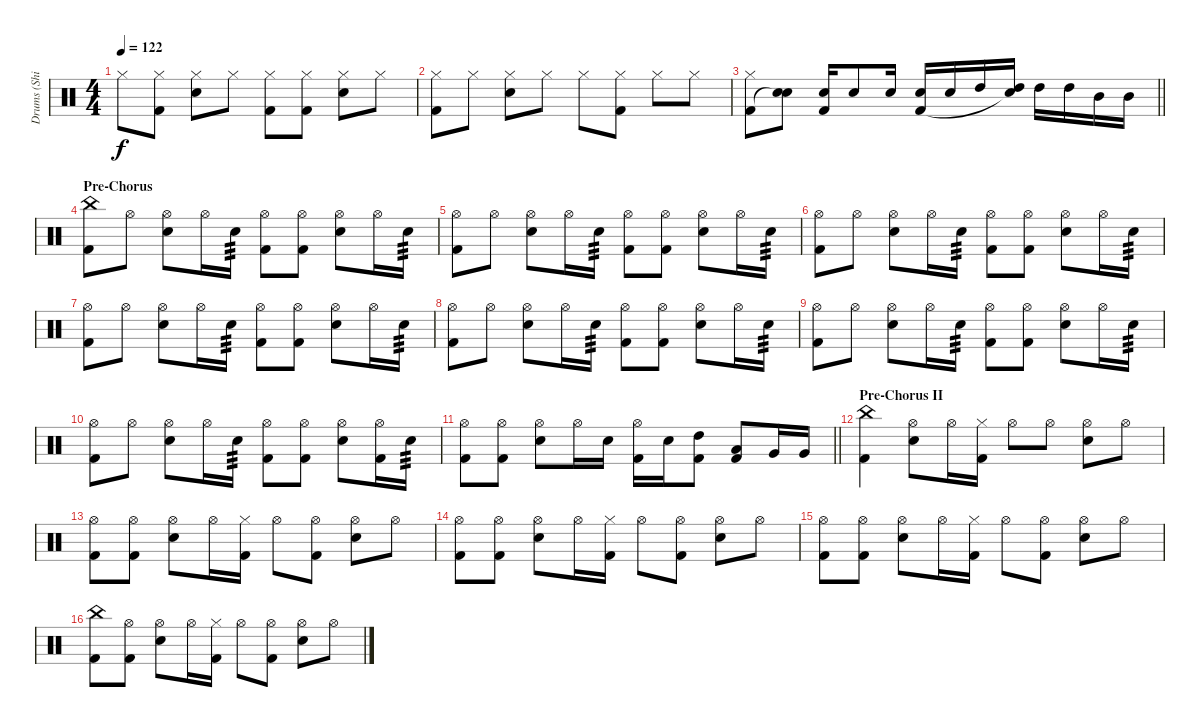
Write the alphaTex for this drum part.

\track ("Drums (Shinya)" "Drums (Shi") {instrument percussion}
\staff {score}
\articulation defaults
\ts (4 4)
\tempo 122
\clef neutral
\ks c "Hi-Hat (closed)".8{dy f}
("Hi-Hat (closed)" "Kick (hit) 2").8 ("Snare (hit) 2" "Hi-Hat (closed)").8 "Hi-Hat (closed)".8 ("Hi-Hat (closed)" "Kick (hit) 2").8 ("Hi-Hat (closed)" "Kick (hit) 2").8 ("Snare (hit) 2" "Hi-Hat (closed)").8 "Hi-Hat (closed)".8 |
("Hi-Hat (closed)" "Kick (hit) 2").8 "Hi-Hat (closed)".8 ("Snare (hit) 2" "Hi-Hat (closed)").8 "Hi-Hat (closed)".8 "Hi-Hat (closed)".8 ("Hi-Hat (closed)" "Kick (hit) 2").8 "Hi-Hat (closed)".8 "Hi-Hat (closed)".8 |
\barLineRight lightlight
("Hi-Hat (closed)" "Kick (hit) 2").8 ("Snare (hit) 2" "Snare (hit)"{t}).8 ("Snare (hit) 2" "Kick (hit) 2").16 "Snare (hit) 2".8 "Snare (hit) 2".16 ("Snare (hit) 2" "Kick (hit) 2").16 "Snare (hit) 2".16 "High Tom (hit)".16 ("High Tom (hit)" "Snare (hit)"{t}).16 "High Tom (hit)".16 "High Tom (hit)".16 "Mid Tom (hit)".16 "Mid Tom (hit)".16 |
\section ("" "Pre-Chorus")
("China (hit)" "Kick (hit) 2").8 "Hi-Hat (open)".8 ("Snare (hit) 2" "Hi-Hat (open)").8 "Hi-Hat (open)".16 "Snare (hit) 2".16{tp 3} ("Hi-Hat (open)" "Kick (hit) 2").8 ("Hi-Hat (open)" "Kick (hit) 2").8 ("Snare (hit) 2" "Hi-Hat (open)").8 "Hi-Hat (open)".16 "Snare (hit) 2".16{tp 3} |
("Hi-Hat (open)" "Kick (hit) 2").8 "Hi-Hat (open)".8 ("Snare (hit) 2" "Hi-Hat (open)").8 "Hi-Hat (open)".16 "Snare (hit) 2".16{tp 3} ("Hi-Hat (open)" "Kick (hit) 2").8 ("Hi-Hat (open)" "Kick (hit) 2").8 ("Snare (hit) 2" "Hi-Hat (open)").8 "Hi-Hat (open)".16 "Snare (hit) 2".16{tp 3} |
("Hi-Hat (open)" "Kick (hit) 2").8 "Hi-Hat (open)".8 ("Snare (hit) 2" "Hi-Hat (open)").8 "Hi-Hat (open)".16 "Snare (hit) 2".16{tp 3} ("Hi-Hat (open)" "Kick (hit) 2").8 ("Hi-Hat (open)" "Kick (hit) 2").8 ("Snare (hit) 2" "Hi-Hat (open)").8 "Hi-Hat (open)".16 "Snare (hit) 2".16{tp 3} |
("Hi-Hat (open)" "Kick (hit) 2").8 "Hi-Hat (open)".8 ("Snare (hit) 2" "Hi-Hat (open)").8 "Hi-Hat (open)".16 "Snare (hit) 2".16{tp 3} ("Hi-Hat (open)" "Kick (hit) 2").8 ("Hi-Hat (open)" "Kick (hit) 2").8 ("Snare (hit) 2" "Hi-Hat (open)").8 "Hi-Hat (open)".16 "Snare (hit) 2".16{tp 3} |
("Hi-Hat (open)" "Kick (hit) 2").8 "Hi-Hat (open)".8 ("Snare (hit) 2" "Hi-Hat (open)").8 "Hi-Hat (open)".16 "Snare (hit) 2".16{tp 3} ("Hi-Hat (open)" "Kick (hit) 2").8 ("Hi-Hat (open)" "Kick (hit) 2").8 ("Snare (hit) 2" "Hi-Hat (open)").8 "Hi-Hat (open)".16 "Snare (hit) 2".16{tp 3} |
("Hi-Hat (open)" "Kick (hit) 2").8 "Hi-Hat (open)".8 ("Snare (hit) 2" "Hi-Hat (open)").8 "Hi-Hat (open)".16 "Snare (hit) 2".16{tp 3} ("Hi-Hat (open)" "Kick (hit) 2").8 ("Hi-Hat (open)" "Kick (hit) 2").8 ("Snare (hit) 2" "Hi-Hat (open)").8 "Hi-Hat (open)".16 "Snare (hit) 2".16{tp 3} |
("Hi-Hat (open)" "Kick (hit) 2").8 "Hi-Hat (open)".8 ("Snare (hit) 2" "Hi-Hat (open)").8 "Hi-Hat (open)".16 "Snare (hit) 2".16{tp 3} ("Hi-Hat (open)" "Kick (hit) 2").8 ("Hi-Hat (open)" "Kick (hit) 2").8 ("Snare (hit) 2" "Hi-Hat (open)").8 ("Hi-Hat (open)" "Kick (hit) 2").16 "Snare (hit) 2".16{tp 3} |
\barLineRight lightlight
("Hi-Hat (open)" "Kick (hit) 2").8 ("Hi-Hat (open)" "Kick (hit) 2").8 ("Snare (hit) 2" "Hi-Hat (open)").8 "Hi-Hat (open)".16 "Snare (hit) 2".16 ("Hi-Hat (open)" "Kick (hit) 2").16 "Snare (hit) 2".16 ("High Tom (hit)" "Kick (hit) 2").8 ("Low Tom (hit)" "Kick (hit) 2").8 "Very Low Tom (hit)".16 "Very Low Tom (hit)".16 |
\section ("" "Pre-Chorus II")
("China (hit)" "Kick (hit) 2").4 ("Snare (hit) 2" "Hi-Hat (open)").8 "Hi-Hat (open)".16 ("Hi-Hat (closed)" "Kick (hit) 2").16 "Hi-Hat (open)".8 "Hi-Hat (open)".8 ("Snare (hit) 2" "Hi-Hat (open)").8 "Hi-Hat (open)".8 |
("Hi-Hat (open)" "Kick (hit) 2").8 ("Hi-Hat (open)" "Kick (hit) 2").8 ("Snare (hit) 2" "Hi-Hat (open)").8 "Hi-Hat (open)".16 ("Hi-Hat (closed)" "Kick (hit) 2").16 "Hi-Hat (open)".8 ("Hi-Hat (open)" "Kick (hit) 2").8 ("Snare (hit) 2" "Hi-Hat (open)").8 "Hi-Hat (open)".8 |
("Hi-Hat (open)" "Kick (hit) 2").8 ("Hi-Hat (open)" "Kick (hit) 2").8 ("Snare (hit) 2" "Hi-Hat (open)").8 "Hi-Hat (open)".16 ("Hi-Hat (closed)" "Kick (hit) 2").16 "Hi-Hat (open)".8 ("Hi-Hat (open)" "Kick (hit) 2").8 ("Snare (hit) 2" "Hi-Hat (open)").8 "Hi-Hat (open)".8 |
("Hi-Hat (open)" "Kick (hit) 2").8 ("Hi-Hat (open)" "Kick (hit) 2").8 ("Snare (hit) 2" "Hi-Hat (open)").8 "Hi-Hat (open)".16 ("Hi-Hat (closed)" "Kick (hit) 2").16 "Hi-Hat (open)".8 ("Hi-Hat (open)" "Kick (hit) 2").8 ("Snare (hit) 2" "Hi-Hat (open)").8 "Hi-Hat (open)".8 |
("China (hit)" "Kick (hit) 2").8 ("Hi-Hat (open)" "Kick (hit) 2").8 ("Snare (hit) 2" "Hi-Hat (open)").8 "Hi-Hat (open)".16 ("Hi-Hat (closed)" "Kick (hit) 2").16 "Hi-Hat (open)".8 ("Hi-Hat (open)" "Kick (hit) 2").8 ("Snare (hit) 2" "Hi-Hat (open)").8 "Hi-Hat (open)".8
